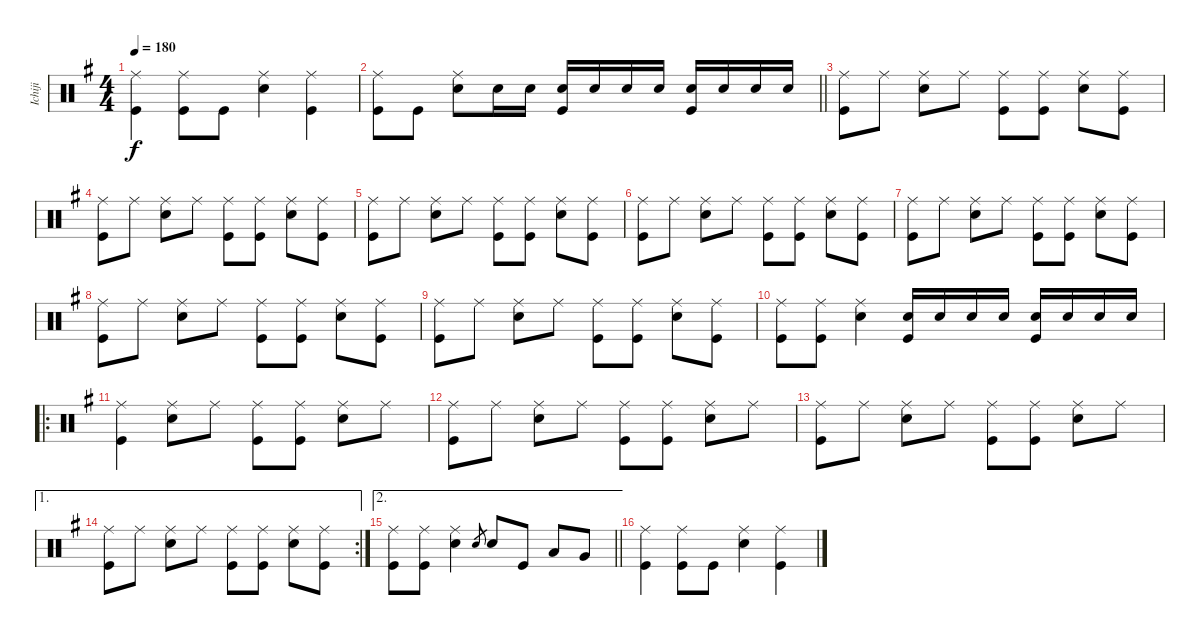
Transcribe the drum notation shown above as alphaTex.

\track ("Ichiji" "Ichiji") {instrument percussion}
\staff {score}
\articulation defaults
\ts (4 4)
\tempo 180
\clef neutral
\ks g
("Ride (middle)" "Kick (hit)").4{dy f} ("Ride (middle)" "Kick (hit)").8 "Kick (hit)".8 ("Ride (middle)" "Snare (hit) 2").4 ("Ride (middle)" "Kick (hit)").4 |
\barLineRight lightlight
("Ride (middle)" "Kick (hit)").8 "Kick (hit)".8 ("Ride (middle)" "Snare (hit) 2").8 "Snare (hit) 2".16 "Snare (hit) 2".16 ("Kick (hit)" "Snare (hit) 2").16 "Snare (hit) 2".16 "Snare (hit) 2".16 "Snare (hit) 2".16 ("Kick (hit)" "Snare (hit) 2").16 "Snare (hit) 2".16 "Snare (hit) 2".16 "Snare (hit) 2".16 |
("Ride (middle)" "Kick (hit)").8 "Ride (middle)".8 ("Ride (middle)" "Snare (hit) 2").8 "Ride (middle)".8 ("Ride (middle)" "Kick (hit)").8 ("Ride (middle)" "Kick (hit)").8 ("Ride (middle)" "Snare (hit) 2").8 ("Ride (middle)" "Kick (hit)").8 |
("Ride (middle)" "Kick (hit)").8 "Ride (middle)".8 ("Ride (middle)" "Snare (hit) 2").8 "Ride (middle)".8 ("Ride (middle)" "Kick (hit)").8 ("Ride (middle)" "Kick (hit)").8 ("Ride (middle)" "Snare (hit) 2").8 ("Ride (middle)" "Kick (hit)").8 |
("Ride (middle)" "Kick (hit)").8 "Ride (middle)".8 ("Ride (middle)" "Snare (hit) 2").8 "Ride (middle)".8 ("Ride (middle)" "Kick (hit)").8 ("Ride (middle)" "Kick (hit)").8 ("Ride (middle)" "Snare (hit) 2").8 ("Ride (middle)" "Kick (hit)").8 |
("Ride (middle)" "Kick (hit)").8 "Ride (middle)".8 ("Ride (middle)" "Snare (hit) 2").8 "Ride (middle)".8 ("Ride (middle)" "Kick (hit)").8 ("Ride (middle)" "Kick (hit)").8 ("Ride (middle)" "Snare (hit) 2").8 ("Ride (middle)" "Kick (hit)").8 |
("Ride (middle)" "Kick (hit)").8 "Ride (middle)".8 ("Ride (middle)" "Snare (hit) 2").8 "Ride (middle)".8 ("Ride (middle)" "Kick (hit)").8 ("Ride (middle)" "Kick (hit)").8 ("Ride (middle)" "Snare (hit) 2").8 ("Ride (middle)" "Kick (hit)").8 |
("Ride (middle)" "Kick (hit)").8 "Ride (middle)".8 ("Ride (middle)" "Snare (hit) 2").8 "Ride (middle)".8 ("Ride (middle)" "Kick (hit)").8 ("Ride (middle)" "Kick (hit)").8 ("Ride (middle)" "Snare (hit) 2").8 ("Ride (middle)" "Kick (hit)").8 |
("Ride (middle)" "Kick (hit)").8 "Ride (middle)".8 ("Ride (middle)" "Snare (hit) 2").8 "Ride (middle)".8 ("Ride (middle)" "Kick (hit)").8 ("Ride (middle)" "Kick (hit)").8 ("Ride (middle)" "Snare (hit) 2").8 ("Ride (middle)" "Kick (hit)").8 |
("Ride (middle)" "Kick (hit)").8 ("Ride (middle)" "Kick (hit)").8 ("Ride (middle)" "Snare (hit) 2").4 ("Snare (hit) 2" "Kick (hit)").16 "Snare (hit) 2".16 "Snare (hit) 2".16 "Snare (hit) 2".16 ("Snare (hit) 2" "Kick (hit)").16 "Snare (hit) 2".16 "Snare (hit) 2".16 "Snare (hit) 2".16 |
\ro
("Ride (middle)" "Kick (hit)").4 ("Ride (middle)" "Snare (hit) 2").8 "Ride (middle)".8 ("Ride (middle)" "Kick (hit)").8 ("Ride (middle)" "Kick (hit)").8 ("Ride (middle)" "Snare (hit) 2").8 "Ride (middle)".8 |
("Ride (middle)" "Kick (hit)").8 "Ride (middle)".8 ("Ride (middle)" "Snare (hit) 2").8 "Ride (middle)".8 ("Ride (middle)" "Kick (hit)").8 ("Ride (middle)" "Kick (hit)").8 ("Ride (middle)" "Snare (hit) 2").8 "Ride (middle)".8 |
("Ride (middle)" "Kick (hit)").8 "Ride (middle)".8 ("Ride (middle)" "Snare (hit) 2").8 "Ride (middle)".8 ("Ride (middle)" "Kick (hit)").8 ("Ride (middle)" "Kick (hit)").8 ("Ride (middle)" "Snare (hit) 2").8 "Ride (middle)".8 |
\ae 1
\rc 2
("Ride (middle)" "Kick (hit)").8 "Ride (middle)".8 ("Ride (middle)" "Snare (hit) 2").8 "Ride (middle)".8 ("Ride (middle)" "Kick (hit)").8 ("Ride (middle)" "Kick (hit)").8 ("Ride (middle)" "Snare (hit) 2").8 ("Kick (hit)" "Ride (middle)").8 |
\ae 2
\barLineRight lightlight
("Ride (middle)" "Kick (hit)").8 ("Ride (middle)" "Kick (hit)").8 ("Ride (middle)" "Snare (hit) 2").4 "Snare (hit) 2".8{gr} "Snare (hit) 2".8 "Kick (hit)".8 "Low Tom (hit)".8 "Very Low Tom (hit)".8 |
("Ride (middle)" "Kick (hit)").4 ("Ride (middle)" "Kick (hit)").8 "Kick (hit)".8 ("Ride (middle)" "Snare (hit) 2").4 ("Ride (middle)" "Kick (hit)").4
